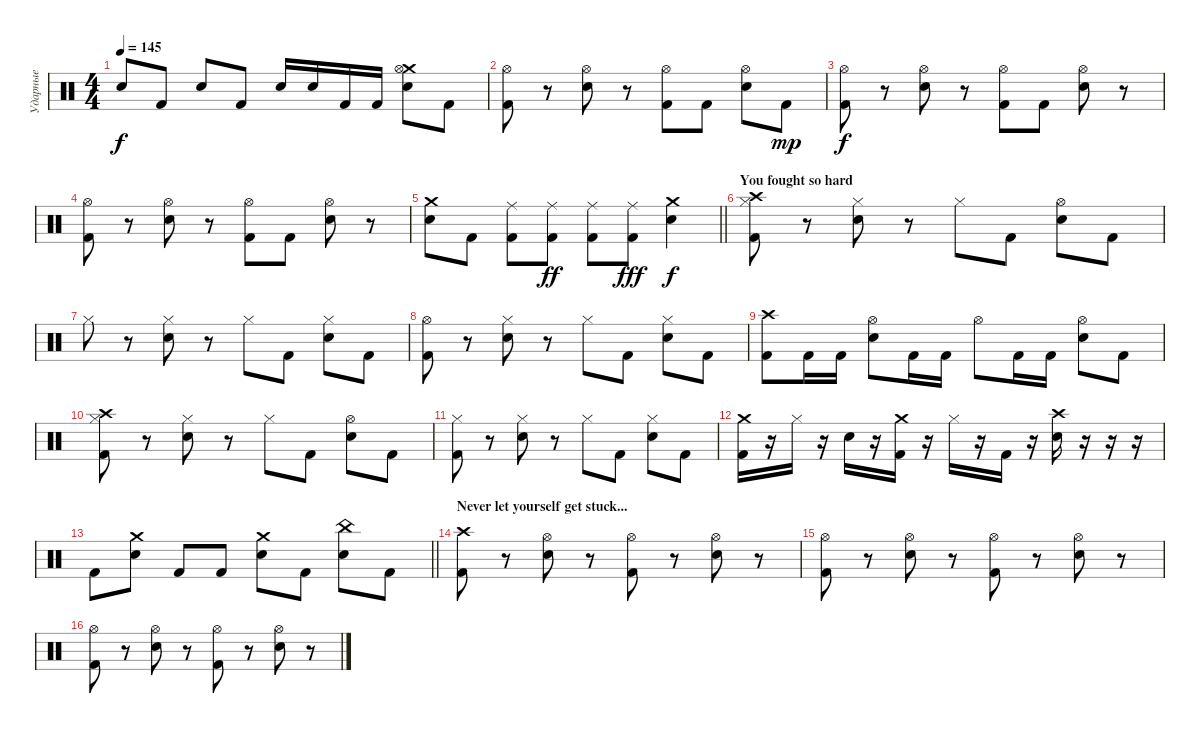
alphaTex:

\track ("Ударные" "Ударные") {instrument percussion bank 127}
\staff
\articulation defaults
\ts (4 4)
\tempo 145
\clef neutral
\ks c "Snare (hit) 2".8{dy f} "Kick (hit) 2".8 "Snare (hit) 2".8 "Kick (hit) 2".8 "Snare (hit) 2".16 "Snare (hit) 2".16 "Kick (hit) 2".16 "Kick (hit) 2".16
("Crash medium (hit)" "Hi-Hat (open)" "Snare (hit) 2").8 "Kick (hit) 2".8 |
("Hi-Hat (open)" "Kick (hit) 2").8 r.8 ("Hi-Hat (open)" "Snare (hit) 2").8 r.8 ("Hi-Hat (open)" "Kick (hit) 2").8 "Kick (hit) 2".8 ("Hi-Hat (open)" "Snare (hit) 2").8 "Kick (hit) 2".8{dy mp} |
("Hi-Hat (open)" "Kick (hit) 2").8{dy f} r.8 ("Hi-Hat (open)" "Snare (hit) 2").8 r.8 ("Hi-Hat (open)" "Kick (hit) 2").8 "Kick (hit) 2".8 ("Hi-Hat (open)" "Snare (hit) 2").8 r.8 |
("Hi-Hat (open)" "Kick (hit) 2").8 r.8 ("Hi-Hat (open)" "Snare (hit) 2").8 r.8 ("Hi-Hat (open)" "Kick (hit) 2").8 "Kick (hit) 2".8 ("Hi-Hat (open)" "Snare (hit) 2").8 r.8 |
\barLineRight lightlight
("Crash medium (hit)" "Snare (hit) 2").8 "Kick (hit) 2".8 ("Ride (middle)" "Kick (hit) 2").8 ("Ride (middle)" "Kick (hit) 2").8{dy ff} ("Ride (middle)" "Kick (hit) 2").8 ("Ride (middle)" "Kick (hit) 2").8{dy fff} ("Crash medium (hit)" "Snare (hit) 2").4{dy f} |
\section ("" "You fought so hard")
("Crash high (hit)" "Kick (hit) 2" "Hi-Hat (closed)").8 r.8 ("Snare (hit) 2" "Hi-Hat (closed)").8 r.8 "Hi-Hat (closed)".8 "Kick (hit) 2".8 ("Snare (hit) 2" "Hi-Hat (open)").8 "Kick (hit) 2".8 |
"Hi-Hat (closed)".8 r.8 ("Hi-Hat (closed)" "Snare (hit) 2").8 r.8 "Hi-Hat (closed)".8 "Kick (hit) 2".8 ("Hi-Hat (closed)" "Snare (hit) 2").8 "Kick (hit) 2".8 |
("Hi-Hat (open)" "Kick (hit) 2").8 r.8 ("Hi-Hat (closed)" "Snare (hit) 2").8 r.8 "Hi-Hat (closed)".8 "Kick (hit) 2".8 ("Hi-Hat (closed)" "Snare (hit) 2").8 "Kick (hit) 2".8 |
("Crash high (hit)" "Kick (hit) 2").8 "Kick (hit) 2".16 "Kick (hit) 2".16 ("Hi-Hat (open)" "Snare (hit) 2").8 "Kick (hit) 2".16 "Kick (hit) 2".16 "Hi-Hat (open)".8 "Kick (hit) 2".16 "Kick (hit) 2".16 ("Hi-Hat (open)" "Snare (hit) 2").8 "Kick (hit) 2".8 |
("Crash high (hit)" "Kick (hit) 2" "Hi-Hat (closed)").8 r.8 ("Snare (hit) 2" "Hi-Hat (closed)").8 r.8 "Hi-Hat (closed)".8 "Kick (hit) 2".8 ("Snare (hit) 2" "Hi-Hat (open)").8 "Kick (hit) 2".8 |
("Hi-Hat (closed)" "Kick (hit) 2").8 r.8 ("Hi-Hat (closed)" "Snare (hit) 2").8 r.8 "Hi-Hat (closed)".8 "Kick (hit) 2".8 ("Hi-Hat (closed)" "Snare (hit) 2").8 "Kick (hit) 2".8 |
("Crash medium (hit)" "Kick (hit) 2").16 r.16 "Hi-Hat (closed)".16 r.16 "Snare (hit) 2".16 r.16 ("Crash medium (hit)" "Kick (hit) 2").16 r.16 "Hi-Hat (closed)".16 r.16 "Kick (hit) 2".16 r.16 ("Crash high (hit)" "Snare (hit) 2").16 r.16 r.16 r.16 |
\barLineRight lightlight "Kick (hit) 2".8
("Crash medium (hit)" "Snare (hit) 2").8 "Kick (hit) 2".8 "Kick (hit) 2".8 ("Crash medium (hit)" "Snare (hit) 2").8 "Kick (hit) 2".8 ("China (hit)" "Snare (hit) 2").8 "Kick (hit) 2".8 |
\section ("" "Never let yourself get stuck...")
("Kick (hit) 2" "Crash high (hit)").8 r.8 ("Snare (hit) 2" "Hi-Hat (open)").8 r.8 ("Kick (hit) 2" "Hi-Hat (open)").8 r.8 ("Snare (hit) 2" "Hi-Hat (open)").8 r.8 |
("Kick (hit) 2" "Hi-Hat (open)").8 r.8 ("Snare (hit) 2" "Hi-Hat (open)").8 r.8 ("Kick (hit) 2" "Hi-Hat (open)").8 r.8 ("Snare (hit) 2" "Hi-Hat (open)").8 r.8 |
("Kick (hit) 2" "Hi-Hat (open)").8 r.8 ("Snare (hit) 2" "Hi-Hat (open)").8 r.8 ("Kick (hit) 2" "Hi-Hat (open)").8 r.8 ("Snare (hit) 2" "Hi-Hat (open)").8 r.8
